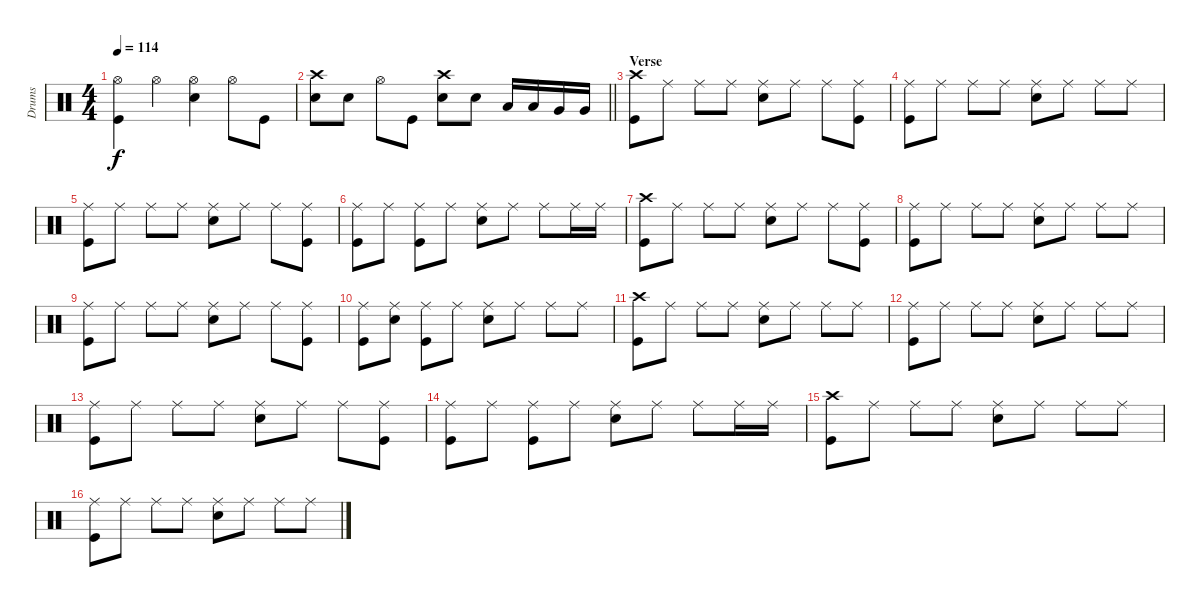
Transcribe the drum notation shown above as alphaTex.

\track ("Drums" "Drums") {instrument percussion}
\staff {score}
\articulation defaults
\ts (4 4)
\tempo 114
\clef neutral
\ks c
("Hi-Hat (open)" "Kick (hit)").4{dy f} "Hi-Hat (open)".4 ("Hi-Hat (open)" "Snare (hit) 2").4 "Hi-Hat (open)".8 "Kick (hit)".8 |
\barLineRight lightlight
("Crash high (hit)" "Snare (hit) 2").8 "Snare (hit) 2".8 "Hi-Hat (open)".8 "Kick (hit)".8 ("Crash high (hit)" "Snare (hit) 2").8 "Snare (hit) 2".8 "Low Tom (hit)".16 "Low Tom (hit)".16 "Very Low Tom (hit)".16 "Very Low Tom (hit)".16 |
\section ("" "Verse")
("Crash high (hit)" "Kick (hit)").8 "Ride (middle)".8 "Ride (middle)".8 "Ride (middle)".8 ("Ride (middle)" "Snare (hit) 2").8 "Ride (middle)".8 "Ride (middle)".8 ("Ride (middle)" "Kick (hit)").8 |
("Ride (middle)" "Kick (hit)").8 "Ride (middle)".8 "Ride (middle)".8 "Ride (middle)".8 ("Ride (middle)" "Snare (hit) 2").8 "Ride (middle)".8 "Ride (middle)".8 "Ride (middle)".8 |
("Ride (middle)" "Kick (hit)").8 "Ride (middle)".8 "Ride (middle)".8 "Ride (middle)".8 ("Ride (middle)" "Snare (hit) 2").8 "Ride (middle)".8 "Ride (middle)".8 ("Ride (middle)" "Kick (hit)").8 |
("Ride (middle)" "Kick (hit)").8 "Ride (middle)".8 ("Ride (middle)" "Kick (hit)").8 "Ride (middle)".8 ("Ride (middle)" "Snare (hit) 2").8 "Ride (middle)".8 "Ride (middle)".8 "Ride (middle)".16 "Ride (middle)".16 |
("Crash high (hit)" "Kick (hit)").8 "Ride (middle)".8 "Ride (middle)".8 "Ride (middle)".8 ("Ride (middle)" "Snare (hit) 2").8 "Ride (middle)".8 "Ride (middle)".8 ("Ride (middle)" "Kick (hit)").8 |
("Ride (middle)" "Kick (hit)").8 "Ride (middle)".8 "Ride (middle)".8 "Ride (middle)".8 ("Ride (middle)" "Snare (hit) 2").8 "Ride (middle)".8 "Ride (middle)".8 "Ride (middle)".8 |
("Ride (middle)" "Kick (hit)").8 "Ride (middle)".8 "Ride (middle)".8 "Ride (middle)".8 ("Ride (middle)" "Snare (hit) 2").8 "Ride (middle)".8 "Ride (middle)".8 ("Ride (middle)" "Kick (hit)").8 |
("Ride (middle)" "Kick (hit)").8 ("Ride (middle)" "Snare (hit) 2").8 ("Ride (middle)" "Kick (hit)").8 "Ride (middle)".8 ("Ride (middle)" "Snare (hit) 2").8 "Ride (middle)".8 "Ride (middle)".8 "Ride (middle)".8 |
("Crash high (hit)" "Kick (hit)").8 "Ride (middle)".8 "Ride (middle)".8 "Ride (middle)".8 ("Ride (middle)" "Snare (hit) 2").8 "Ride (middle)".8 "Ride (middle)".8 "Ride (middle)".8 |
("Ride (middle)" "Kick (hit)").8 "Ride (middle)".8 "Ride (middle)".8 "Ride (middle)".8 ("Ride (middle)" "Snare (hit) 2").8 "Ride (middle)".8 "Ride (middle)".8 "Ride (middle)".8 |
("Ride (middle)" "Kick (hit)").8 "Ride (middle)".8 "Ride (middle)".8 "Ride (middle)".8 ("Ride (middle)" "Snare (hit) 2").8 "Ride (middle)".8 "Ride (middle)".8 ("Ride (middle)" "Kick (hit)").8 |
("Ride (middle)" "Kick (hit)").8 "Ride (middle)".8 ("Ride (middle)" "Kick (hit)").8 "Ride (middle)".8 ("Ride (middle)" "Snare (hit) 2").8 "Ride (middle)".8 "Ride (middle)".8 "Ride (middle)".16 "Ride (middle)".16 |
("Crash high (hit)" "Kick (hit)").8 "Ride (middle)".8 "Ride (middle)".8 "Ride (middle)".8 ("Ride (middle)" "Snare (hit) 2").8 "Ride (middle)".8 "Ride (middle)".8 "Ride (middle)".8 |
("Ride (middle)" "Kick (hit)").8 "Ride (middle)".8 "Ride (middle)".8 "Ride (middle)".8 ("Ride (middle)" "Snare (hit) 2").8 "Ride (middle)".8 "Ride (middle)".8 "Ride (middle)".8
